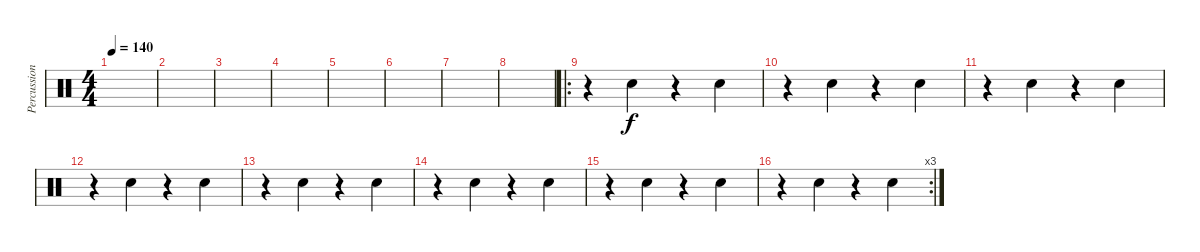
\track ("Percussions" "Percussion") {instrument percussion}
\staff {score}
\articulation defaults
\ts (4 4)
\tempo 140
\clef neutral
\ks c
|
|
|
|
|
|
|
|
\ro
r.4 "Hand Clap (hit)".4 r.4 "Hand Clap (hit)".4 |
r.4 "Hand Clap (hit)".4 r.4 "Hand Clap (hit)".4 |
r.4 "Hand Clap (hit)".4 r.4 "Hand Clap (hit)".4 |
r.4 "Hand Clap (hit)".4 r.4 "Hand Clap (hit)".4 |
r.4 "Hand Clap (hit)".4 r.4 "Hand Clap (hit)".4 |
r.4 "Hand Clap (hit)".4 r.4 "Hand Clap (hit)".4 |
r.4 "Hand Clap (hit)".4 r.4 "Hand Clap (hit)".4 |
\rc 3
r.4 "Hand Clap (hit)".4 r.4 "Hand Clap (hit)".4
